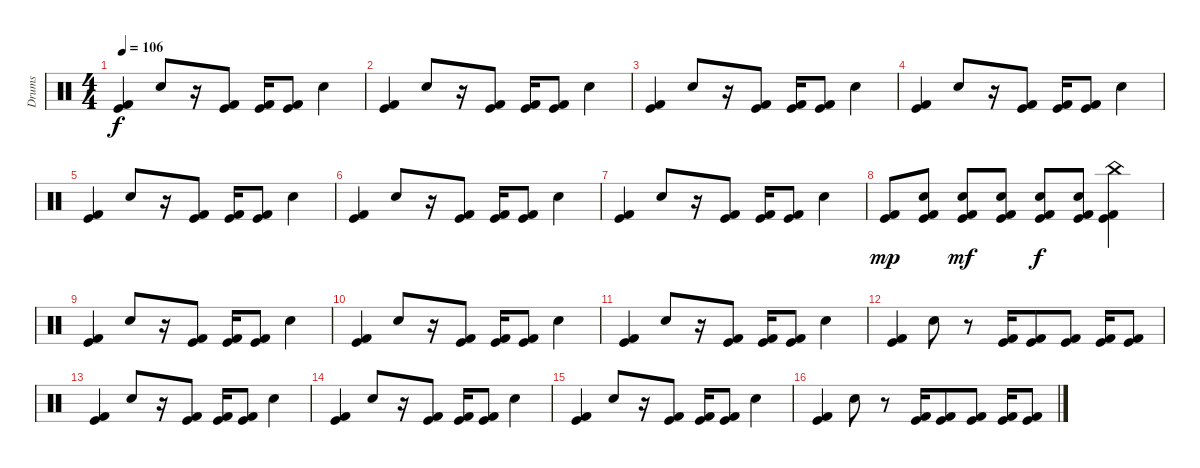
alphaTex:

\track ("Drums" "Drums") {instrument percussion}
\staff {score}
\articulation defaults
\ts (4 4)
\tempo 106
\clef neutral
\ks c
("Kick (hit)" "Kick (hit) 2").4{dy f} "Snare (hit) 2".8 r.16 ("Kick (hit)" "Kick (hit) 2").8 ("Kick (hit)" "Kick (hit) 2").16 ("Kick (hit)" "Kick (hit) 2").8 "Snare (hit) 2".4 |
("Kick (hit)" "Kick (hit) 2").4 "Snare (hit) 2".8 r.16 ("Kick (hit)" "Kick (hit) 2").8 ("Kick (hit)" "Kick (hit) 2").16 ("Kick (hit)" "Kick (hit) 2").8 "Snare (hit) 2".4 |
("Kick (hit)" "Kick (hit) 2").4 "Snare (hit) 2".8 r.16 ("Kick (hit)" "Kick (hit) 2").8 ("Kick (hit)" "Kick (hit) 2").16 ("Kick (hit)" "Kick (hit) 2").8 "Snare (hit) 2".4 |
("Kick (hit)" "Kick (hit) 2").4 "Snare (hit) 2".8 r.16 ("Kick (hit)" "Kick (hit) 2").8 ("Kick (hit)" "Kick (hit) 2").16 ("Kick (hit)" "Kick (hit) 2").8 "Snare (hit) 2".4 |
("Kick (hit)" "Kick (hit) 2").4 "Snare (hit) 2".8 r.16 ("Kick (hit)" "Kick (hit) 2").8 ("Kick (hit)" "Kick (hit) 2").16 ("Kick (hit)" "Kick (hit) 2").8 "Snare (hit) 2".4 |
("Kick (hit)" "Kick (hit) 2").4 "Snare (hit) 2".8 r.16 ("Kick (hit)" "Kick (hit) 2").8 ("Kick (hit)" "Kick (hit) 2").16 ("Kick (hit)" "Kick (hit) 2").8 "Snare (hit) 2".4 |
("Kick (hit)" "Kick (hit) 2").4 "Snare (hit) 2".8 r.16 ("Kick (hit)" "Kick (hit) 2").8 ("Kick (hit)" "Kick (hit) 2").16 ("Kick (hit)" "Kick (hit) 2").8 "Snare (hit) 2".4 |
("Kick (hit)" "Kick (hit) 2").8{dy mp} ("Kick (hit)" "Kick (hit) 2" "Electric Snare (hit)").8 ("Kick (hit)" "Kick (hit) 2" "Electric Snare (hit)").8{dy mf} ("Kick (hit)" "Kick (hit) 2" "Electric Snare (hit)").8 ("Kick (hit)" "Kick (hit) 2" "Electric Snare (hit)").8{dy f} ("Kick (hit)" "Kick (hit) 2" "Electric Snare (hit)").8 ("China (hit)" "Kick (hit)" "Kick (hit) 2").4 |
("Kick (hit)" "Kick (hit) 2").4 "Snare (hit) 2".8 r.16 ("Kick (hit)" "Kick (hit) 2").8 ("Kick (hit)" "Kick (hit) 2").16 ("Kick (hit)" "Kick (hit) 2").8 "Snare (hit) 2".4 |
("Kick (hit)" "Kick (hit) 2").4 "Snare (hit) 2".8 r.16 ("Kick (hit)" "Kick (hit) 2").8 ("Kick (hit)" "Kick (hit) 2").16 ("Kick (hit)" "Kick (hit) 2").8 "Snare (hit) 2".4 |
("Kick (hit)" "Kick (hit) 2").4 "Snare (hit) 2".8 r.16 ("Kick (hit)" "Kick (hit) 2").8 ("Kick (hit)" "Kick (hit) 2").16 ("Kick (hit)" "Kick (hit) 2").8 "Snare (hit) 2".4 |
("Kick (hit)" "Kick (hit) 2").4 "Snare (hit) 2".8 r.8 ("Kick (hit)" "Kick (hit) 2").16 ("Kick (hit)" "Kick (hit) 2").8 ("Kick (hit)" "Kick (hit) 2").8 ("Kick (hit)" "Kick (hit) 2").16 ("Kick (hit)" "Kick (hit) 2").8 |
("Kick (hit)" "Kick (hit) 2").4 "Snare (hit) 2".8 r.16 ("Kick (hit)" "Kick (hit) 2").8 ("Kick (hit)" "Kick (hit) 2").16 ("Kick (hit)" "Kick (hit) 2").8 "Snare (hit) 2".4 |
("Kick (hit)" "Kick (hit) 2").4 "Snare (hit) 2".8 r.16 ("Kick (hit)" "Kick (hit) 2").8 ("Kick (hit)" "Kick (hit) 2").16 ("Kick (hit)" "Kick (hit) 2").8 "Snare (hit) 2".4 |
("Kick (hit)" "Kick (hit) 2").4 "Snare (hit) 2".8 r.16 ("Kick (hit)" "Kick (hit) 2").8 ("Kick (hit)" "Kick (hit) 2").16 ("Kick (hit)" "Kick (hit) 2").8 "Snare (hit) 2".4 |
("Kick (hit)" "Kick (hit) 2").4 "Snare (hit) 2".8 r.8 ("Kick (hit)" "Kick (hit) 2").16 ("Kick (hit)" "Kick (hit) 2").8 ("Kick (hit)" "Kick (hit) 2").8 ("Kick (hit)" "Kick (hit) 2").16 ("Kick (hit)" "Kick (hit) 2").8
